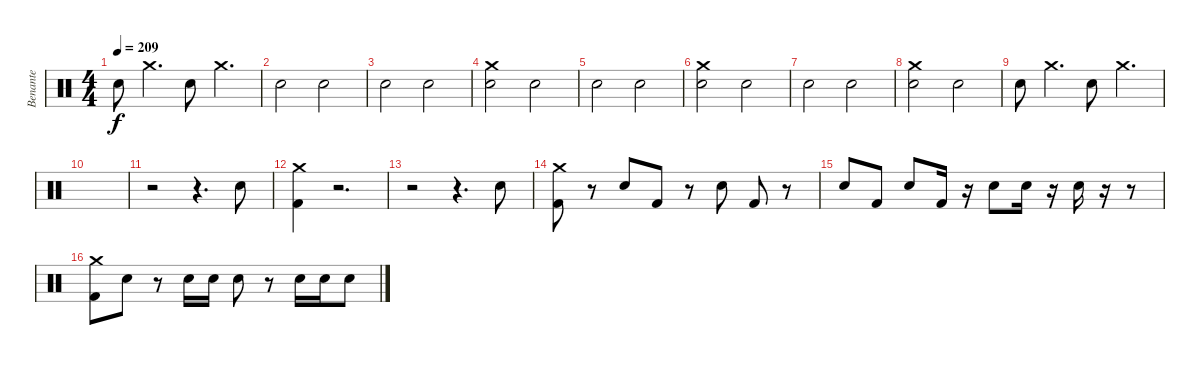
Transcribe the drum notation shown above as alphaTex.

\track ("Benante" "Benante") {solo instrument percussion}
\staff {score}
\articulation defaults
\ts (4 4)
\tempo 209
\clef neutral
\ks c "Electric Snare (hit)".8{dy f} "Crash medium (hit)".4{d} "Electric Snare (hit)".8 "Crash medium (hit)".4{d}
|
"Electric Snare (hit)".2 "Electric Snare (hit)".2 |
"Electric Snare (hit)".2 "Electric Snare (hit)".2 |
("Electric Snare (hit)" "Crash medium (hit)").2 "Electric Snare (hit)".2 |
"Electric Snare (hit)".2 "Electric Snare (hit)".2 |
("Electric Snare (hit)" "Crash medium (hit)").2 "Electric Snare (hit)".2 |
"Electric Snare (hit)".2 "Electric Snare (hit)".2 |
("Electric Snare (hit)" "Crash medium (hit)").2 "Electric Snare (hit)".2 |
"Electric Snare (hit)".8 "Crash medium (hit)".4{d} "Electric Snare (hit)".8 "Crash medium (hit)".4{d} |
|
r.2 r.4{d} "Electric Snare (hit)".8 |
("Kick (hit) 2" "Crash medium (hit)").4 r.2{d} |
r.2 r.4{d} "Electric Snare (hit)".8 |
("Kick (hit) 2" "Crash medium (hit)").8 r.8 "Electric Snare (hit)".8 "Kick (hit) 2".8 r.8 "Electric Snare (hit)".8 "Kick (hit) 2".8 r.8 |
"Electric Snare (hit)".8 "Kick (hit) 2".8 "Electric Snare (hit)".8 "Kick (hit) 2".16 r.16 "Electric Snare (hit)".8 "Electric Snare (hit)".16 r.16 "Electric Snare (hit)".16 r.16 r.8 |
("Kick (hit) 2" "Crash medium (hit)").8 "Electric Snare (hit)".8 r.8 "Electric Snare (hit)".16 "Electric Snare (hit)".16 "Electric Snare (hit)".8 r.8 "Electric Snare (hit)".16 "Electric Snare (hit)".16 "Electric Snare (hit)".8
